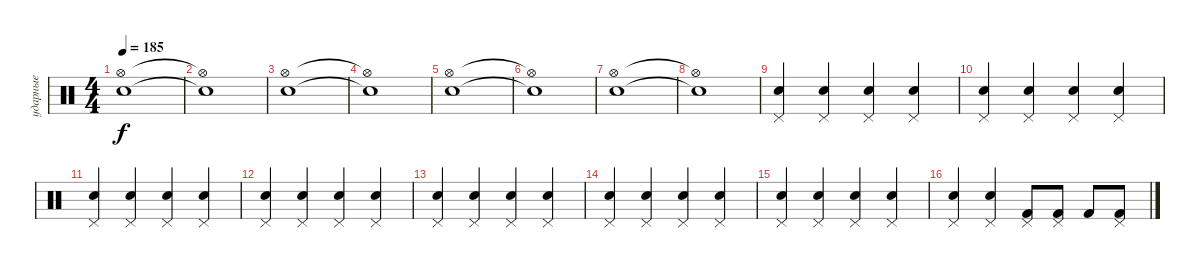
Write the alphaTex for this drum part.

\track ("ударные" "ударные") {instrument percussion}
\staff {score}
\articulation defaults
\ts (4 4)
\tempo 185
\clef neutral
\ks c
("Hi-Hat (open)" "Snare (hit) 2").1{dy f} |
("Hi-Hat (open)"{t} "Snare (hit) 2"{t}).1 |
("Hi-Hat (open)" "Snare (hit) 2").1 |
("Hi-Hat (open)"{t} "Snare (hit) 2"{t}).1 |
("Hi-Hat (open)" "Snare (hit) 2").1 |
("Hi-Hat (open)"{t} "Snare (hit) 2"{t}).1 |
("Hi-Hat (open)" "Snare (hit) 2").1 |
("Hi-Hat (open)"{t} "Snare (hit) 2"{t}).1 |
("Pedal Hi-Hat (hit)" "Snare (hit) 2").4 ("Pedal Hi-Hat (hit)" "Snare (hit) 2").4 ("Pedal Hi-Hat (hit)" "Snare (hit) 2").4 ("Pedal Hi-Hat (hit)" "Snare (hit) 2").4 |
("Pedal Hi-Hat (hit)" "Snare (hit) 2").4 ("Pedal Hi-Hat (hit)" "Snare (hit) 2").4 ("Pedal Hi-Hat (hit)" "Snare (hit) 2").4 ("Pedal Hi-Hat (hit)" "Snare (hit) 2").4 |
("Pedal Hi-Hat (hit)" "Snare (hit) 2").4 ("Pedal Hi-Hat (hit)" "Snare (hit) 2").4 ("Pedal Hi-Hat (hit)" "Snare (hit) 2").4 ("Pedal Hi-Hat (hit)" "Snare (hit) 2").4 |
("Pedal Hi-Hat (hit)" "Snare (hit) 2").4 ("Pedal Hi-Hat (hit)" "Snare (hit) 2").4 ("Pedal Hi-Hat (hit)" "Snare (hit) 2").4 ("Pedal Hi-Hat (hit)" "Snare (hit) 2").4 |
("Pedal Hi-Hat (hit)" "Snare (hit) 2").4 ("Pedal Hi-Hat (hit)" "Snare (hit) 2").4 ("Pedal Hi-Hat (hit)" "Snare (hit) 2").4 ("Pedal Hi-Hat (hit)" "Snare (hit) 2").4 |
("Pedal Hi-Hat (hit)" "Snare (hit) 2").4 ("Pedal Hi-Hat (hit)" "Snare (hit) 2").4 ("Pedal Hi-Hat (hit)" "Snare (hit) 2").4 ("Pedal Hi-Hat (hit)" "Snare (hit) 2").4 |
("Pedal Hi-Hat (hit)" "Snare (hit) 2").4 ("Pedal Hi-Hat (hit)" "Snare (hit) 2").4 ("Pedal Hi-Hat (hit)" "Snare (hit) 2").4 ("Pedal Hi-Hat (hit)" "Snare (hit) 2").4 |
("Pedal Hi-Hat (hit)" "Snare (hit) 2").4 ("Pedal Hi-Hat (hit)" "Snare (hit) 2").4 ("Pedal Hi-Hat (hit)" "Kick (hit) 2").8 ("Pedal Hi-Hat (hit)" "Kick (hit) 2").8 "Kick (hit) 2".8 ("Pedal Hi-Hat (hit)" "Kick (hit) 2").8
